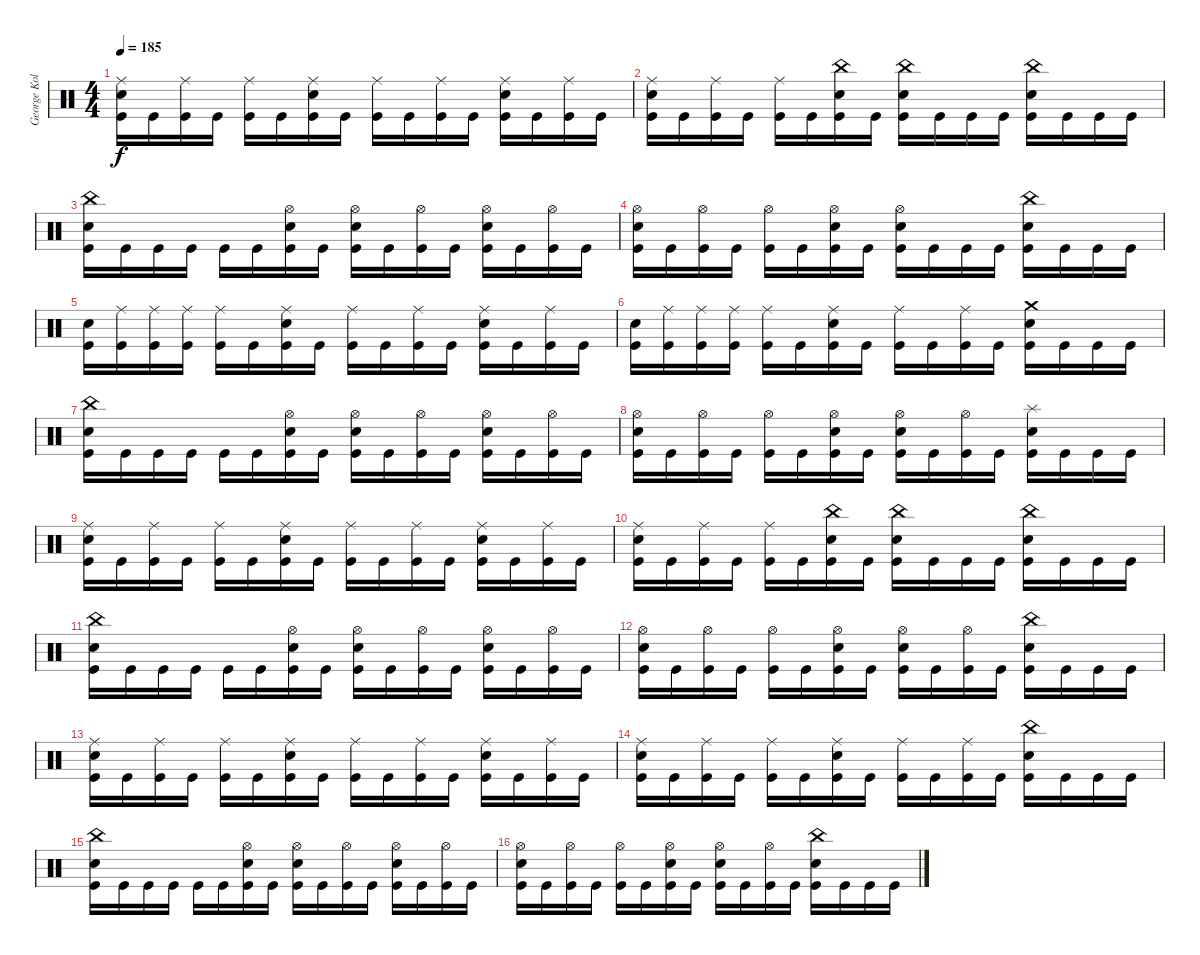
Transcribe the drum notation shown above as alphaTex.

\track ("George Kollias" "George Kol") {instrument percussion}
\staff {score}
\articulation defaults
\ts (4 4)
\tempo 185
\clef neutral
\ks c
("Ride (middle)" "Snare (hit) 2" "Kick (hit)").16{dy f} "Kick (hit)".16 ("Ride (middle)" "Kick (hit)").16 "Kick (hit)".16 ("Ride (middle)" "Kick (hit)").16 "Kick (hit)".16 ("Ride (middle)" "Snare (hit) 2" "Kick (hit)").16 "Kick (hit)".16 ("Ride (middle)" "Kick (hit)").16 "Kick (hit)".16 ("Ride (middle)" "Kick (hit)").16 "Kick (hit)".16 ("Ride (middle)" "Snare (hit) 2" "Kick (hit)").16 "Kick (hit)".16 ("Ride (middle)" "Kick (hit)").16 "Kick (hit)".16 |
("Ride (middle)" "Snare (hit) 2" "Kick (hit)").16 "Kick (hit)".16 ("Ride (middle)" "Kick (hit)").16 "Kick (hit)".16 ("Ride (middle)" "Kick (hit)").16 "Kick (hit)".16 ("China (hit)" "Snare (hit) 2" "Kick (hit)").16 "Kick (hit)".16 ("China (hit)" "Snare (hit) 2" "Kick (hit)").16 "Kick (hit)".16 "Kick (hit)".16 "Kick (hit)".16 ("China (hit)" "Snare (hit) 2" "Kick (hit)").16 "Kick (hit)".16 "Kick (hit)".16 "Kick (hit)".16 |
("China (hit)" "Snare (hit) 2" "Kick (hit)").16 "Kick (hit)".16 "Kick (hit)".16 "Kick (hit)".16 "Kick (hit)".16 "Kick (hit)".16 ("Hi-Hat (open)" "Snare (hit) 2" "Kick (hit)").16 "Kick (hit)".16 ("Hi-Hat (open)" "Snare (hit) 2" "Kick (hit)").16 "Kick (hit)".16 ("Hi-Hat (open)" "Kick (hit)").16 "Kick (hit)".16 ("Hi-Hat (open)" "Snare (hit) 2" "Kick (hit)").16 "Kick (hit)".16 ("Hi-Hat (open)" "Kick (hit)").16 "Kick (hit)".16 |
("Hi-Hat (open)" "Snare (hit) 2" "Kick (hit)").16 "Kick (hit)".16 ("Hi-Hat (open)" "Kick (hit)").16 "Kick (hit)".16 ("Hi-Hat (open)" "Kick (hit)").16 "Kick (hit)".16 ("Hi-Hat (open)" "Snare (hit) 2" "Kick (hit)").16 "Kick (hit)".16 ("Hi-Hat (open)" "Snare (hit) 2" "Kick (hit)").16 "Kick (hit)".16 "Kick (hit)".16 "Kick (hit)".16 ("China (hit)" "Snare (hit) 2" "Kick (hit)").16 "Kick (hit)".16 "Kick (hit)".16 "Kick (hit)".16 |
("Snare (hit) 2" "Kick (hit)").16 ("Ride (middle)" "Kick (hit)").16 ("Ride (middle)" "Kick (hit)").16 ("Ride (middle)" "Kick (hit)").16 ("Ride (middle)" "Kick (hit)").16 "Kick (hit)".16 ("Ride (middle)" "Snare (hit) 2" "Kick (hit)").16 "Kick (hit)".16 ("Ride (middle)" "Kick (hit)").16 "Kick (hit)".16 ("Ride (middle)" "Kick (hit)").16 "Kick (hit)".16 ("Ride (middle)" "Snare (hit) 2" "Kick (hit)").16 "Kick (hit)".16 ("Ride (middle)" "Kick (hit)").16 "Kick (hit)".16 |
("Snare (hit) 2" "Kick (hit)").16 ("Ride (middle)" "Kick (hit)").16 ("Ride (middle)" "Kick (hit)").16 ("Ride (middle)" "Kick (hit)").16 ("Ride (middle)" "Kick (hit)").16 "Kick (hit)".16 ("Ride (middle)" "Snare (hit) 2" "Kick (hit)").16 "Kick (hit)".16 ("Ride (middle)" "Kick (hit)").16 "Kick (hit)".16 ("Ride (middle)" "Kick (hit)").16 "Kick (hit)".16 ("Crash medium (hit)" "Snare (hit) 2" "Kick (hit)").16 "Kick (hit)".16 "Kick (hit)".16 "Kick (hit)".16 |
("China (hit)" "Snare (hit) 2" "Kick (hit)").16 "Kick (hit)".16 "Kick (hit)".16 "Kick (hit)".16 "Kick (hit)".16 "Kick (hit)".16 ("Hi-Hat (open)" "Snare (hit) 2" "Kick (hit)").16 "Kick (hit)".16 ("Hi-Hat (open)" "Snare (hit) 2" "Kick (hit)").16 "Kick (hit)".16 ("Hi-Hat (open)" "Kick (hit)").16 "Kick (hit)".16 ("Hi-Hat (open)" "Snare (hit) 2" "Kick (hit)").16 "Kick (hit)".16 ("Hi-Hat (open)" "Kick (hit)").16 "Kick (hit)".16 |
("Hi-Hat (open)" "Snare (hit) 2" "Kick (hit)").16 "Kick (hit)".16 ("Hi-Hat (open)" "Kick (hit)").16 "Kick (hit)".16 ("Hi-Hat (open)" "Kick (hit)").16 "Kick (hit)".16 ("Hi-Hat (open)" "Snare (hit) 2" "Kick (hit)").16 "Kick (hit)".16 ("Hi-Hat (open)" "Snare (hit) 2" "Kick (hit)").16 "Kick (hit)".16 ("Hi-Hat (open)" "Kick (hit)").16 "Kick (hit)".16 ("Splash (hit)" "Snare (hit) 2" "Kick (hit)").16 "Kick (hit)".16 "Kick (hit)".16 "Kick (hit)".16 |
("Ride (middle)" "Snare (hit) 2" "Kick (hit)").16 "Kick (hit)".16 ("Ride (middle)" "Kick (hit)").16 "Kick (hit)".16 ("Ride (middle)" "Kick (hit)").16 "Kick (hit)".16 ("Ride (middle)" "Snare (hit) 2" "Kick (hit)").16 "Kick (hit)".16 ("Ride (middle)" "Kick (hit)").16 "Kick (hit)".16 ("Ride (middle)" "Kick (hit)").16 "Kick (hit)".16 ("Ride (middle)" "Snare (hit) 2" "Kick (hit)").16 "Kick (hit)".16 ("Ride (middle)" "Kick (hit)").16 "Kick (hit)".16 |
("Ride (middle)" "Snare (hit) 2" "Kick (hit)").16 "Kick (hit)".16 ("Ride (middle)" "Kick (hit)").16 "Kick (hit)".16 ("Ride (middle)" "Kick (hit)").16 "Kick (hit)".16 ("China (hit)" "Snare (hit) 2" "Kick (hit)").16 "Kick (hit)".16 ("China (hit)" "Snare (hit) 2" "Kick (hit)").16 "Kick (hit)".16 "Kick (hit)".16 "Kick (hit)".16 ("China (hit)" "Snare (hit) 2" "Kick (hit)").16 "Kick (hit)".16 "Kick (hit)".16 "Kick (hit)".16 |
("China (hit)" "Snare (hit) 2" "Kick (hit)").16 "Kick (hit)".16 "Kick (hit)".16 "Kick (hit)".16 "Kick (hit)".16 "Kick (hit)".16 ("Hi-Hat (open)" "Snare (hit) 2" "Kick (hit)").16 "Kick (hit)".16 ("Hi-Hat (open)" "Snare (hit) 2" "Kick (hit)").16 "Kick (hit)".16 ("Hi-Hat (open)" "Kick (hit)").16 "Kick (hit)".16 ("Hi-Hat (open)" "Snare (hit) 2" "Kick (hit)").16 "Kick (hit)".16 ("Hi-Hat (open)" "Kick (hit)").16 "Kick (hit)".16 |
("Hi-Hat (open)" "Snare (hit) 2" "Kick (hit)").16 "Kick (hit)".16 ("Hi-Hat (open)" "Kick (hit)").16 "Kick (hit)".16 ("Hi-Hat (open)" "Kick (hit)").16 "Kick (hit)".16 ("Hi-Hat (open)" "Snare (hit) 2" "Kick (hit)").16 "Kick (hit)".16 ("Hi-Hat (open)" "Snare (hit) 2" "Kick (hit)").16 "Kick (hit)".16 ("Hi-Hat (open)" "Kick (hit)").16 "Kick (hit)".16 ("China (hit)" "Snare (hit) 2" "Kick (hit)").16 "Kick (hit)".16 "Kick (hit)".16 "Kick (hit)".16 |
("Ride (middle)" "Snare (hit) 2" "Kick (hit)").16 "Kick (hit)".16 ("Ride (middle)" "Kick (hit)").16 "Kick (hit)".16 ("Ride (middle)" "Kick (hit)").16 "Kick (hit)".16 ("Ride (middle)" "Snare (hit) 2" "Kick (hit)").16 "Kick (hit)".16 ("Ride (middle)" "Kick (hit)").16 "Kick (hit)".16 ("Ride (middle)" "Kick (hit)").16 "Kick (hit)".16 ("Ride (middle)" "Snare (hit) 2" "Kick (hit)").16 "Kick (hit)".16 ("Ride (middle)" "Kick (hit)").16 "Kick (hit)".16 |
("Ride (middle)" "Snare (hit) 2" "Kick (hit)").16 "Kick (hit)".16 ("Ride (middle)" "Kick (hit)").16 "Kick (hit)".16 ("Ride (middle)" "Kick (hit)").16 "Kick (hit)".16 ("Ride (middle)" "Snare (hit) 2" "Kick (hit)").16 "Kick (hit)".16 ("Ride (middle)" "Kick (hit)").16 "Kick (hit)".16 ("Ride (middle)" "Kick (hit)").16 "Kick (hit)".16 ("China (hit)" "Snare (hit) 2" "Kick (hit)").16 "Kick (hit)".16 "Kick (hit)".16 "Kick (hit)".16 |
("China (hit)" "Snare (hit) 2" "Kick (hit)").16 "Kick (hit)".16 "Kick (hit)".16 "Kick (hit)".16 "Kick (hit)".16 "Kick (hit)".16 ("Hi-Hat (open)" "Snare (hit) 2" "Kick (hit)").16 "Kick (hit)".16 ("Hi-Hat (open)" "Snare (hit) 2" "Kick (hit)").16 "Kick (hit)".16 ("Hi-Hat (open)" "Kick (hit)").16 "Kick (hit)".16 ("Hi-Hat (open)" "Snare (hit) 2" "Kick (hit)").16 "Kick (hit)".16 ("Hi-Hat (open)" "Kick (hit)").16 "Kick (hit)".16 |
("Hi-Hat (open)" "Snare (hit) 2" "Kick (hit)").16 "Kick (hit)".16 ("Hi-Hat (open)" "Kick (hit)").16 "Kick (hit)".16 ("Hi-Hat (open)" "Kick (hit)").16 "Kick (hit)".16 ("Hi-Hat (open)" "Snare (hit) 2" "Kick (hit)").16 "Kick (hit)".16 ("Hi-Hat (open)" "Snare (hit) 2" "Kick (hit)").16 "Kick (hit)".16 ("Hi-Hat (open)" "Kick (hit)").16 "Kick (hit)".16 ("China (hit)" "Snare (hit) 2" "Kick (hit)").16 "Kick (hit)".16 "Kick (hit)".16 "Kick (hit)".16
